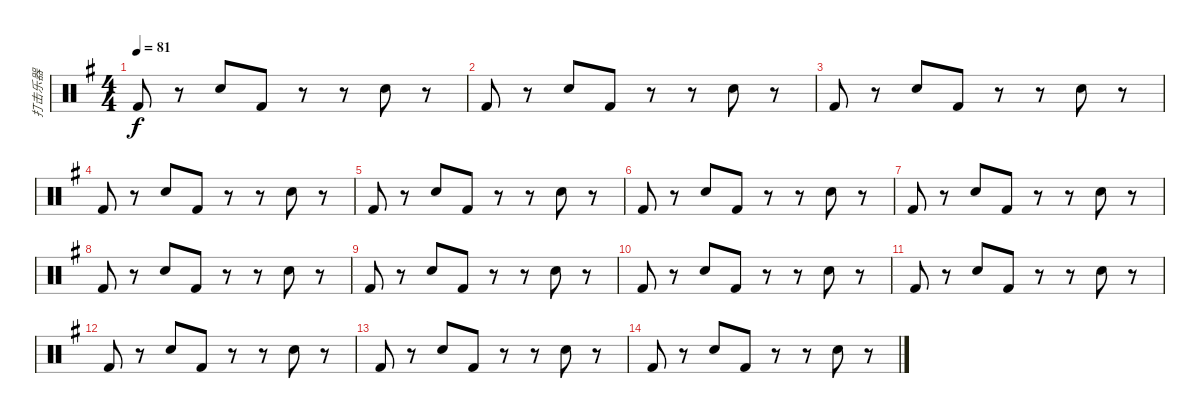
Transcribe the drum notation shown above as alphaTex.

\track ("打击乐器" "打击乐器") {instrument percussion}
\staff {score}
\articulation defaults
\ts (4 4)
\tempo 81
\clef neutral
\ks g "Kick (hit) 2".8{dy f}
r.8 "Electric Snare (hit)".8 "Kick (hit) 2".8 r.8 r.8 "Electric Snare (hit)".8 r.8 |
"Kick (hit) 2".8 r.8 "Electric Snare (hit)".8 "Kick (hit) 2".8 r.8 r.8 "Electric Snare (hit)".8 r.8 |
"Kick (hit) 2".8 r.8 "Electric Snare (hit)".8 "Kick (hit) 2".8 r.8 r.8 "Electric Snare (hit)".8 r.8 |
"Kick (hit) 2".8 r.8 "Electric Snare (hit)".8 "Kick (hit) 2".8 r.8 r.8 "Electric Snare (hit)".8 r.8 |
"Kick (hit) 2".8 r.8 "Electric Snare (hit)".8 "Kick (hit) 2".8 r.8 r.8 "Electric Snare (hit)".8 r.8 |
"Kick (hit) 2".8 r.8 "Electric Snare (hit)".8 "Kick (hit) 2".8 r.8 r.8 "Electric Snare (hit)".8 r.8 |
"Kick (hit) 2".8 r.8 "Electric Snare (hit)".8 "Kick (hit) 2".8 r.8 r.8 "Electric Snare (hit)".8 r.8 |
"Kick (hit) 2".8 r.8 "Electric Snare (hit)".8 "Kick (hit) 2".8 r.8 r.8 "Electric Snare (hit)".8 r.8 |
"Kick (hit) 2".8 r.8 "Electric Snare (hit)".8 "Kick (hit) 2".8 r.8 r.8 "Electric Snare (hit)".8 r.8 |
"Kick (hit) 2".8 r.8 "Electric Snare (hit)".8 "Kick (hit) 2".8 r.8 r.8 "Electric Snare (hit)".8 r.8 |
"Kick (hit) 2".8 r.8 "Electric Snare (hit)".8 "Kick (hit) 2".8 r.8 r.8 "Electric Snare (hit)".8 r.8 |
"Kick (hit) 2".8 r.8 "Electric Snare (hit)".8 "Kick (hit) 2".8 r.8 r.8 "Electric Snare (hit)".8 r.8 |
"Kick (hit) 2".8 r.8 "Electric Snare (hit)".8 "Kick (hit) 2".8 r.8 r.8 "Electric Snare (hit)".8 r.8 |
"Kick (hit) 2".8 r.8 "Electric Snare (hit)".8 "Kick (hit) 2".8 r.8 r.8 "Electric Snare (hit)".8 r.8
